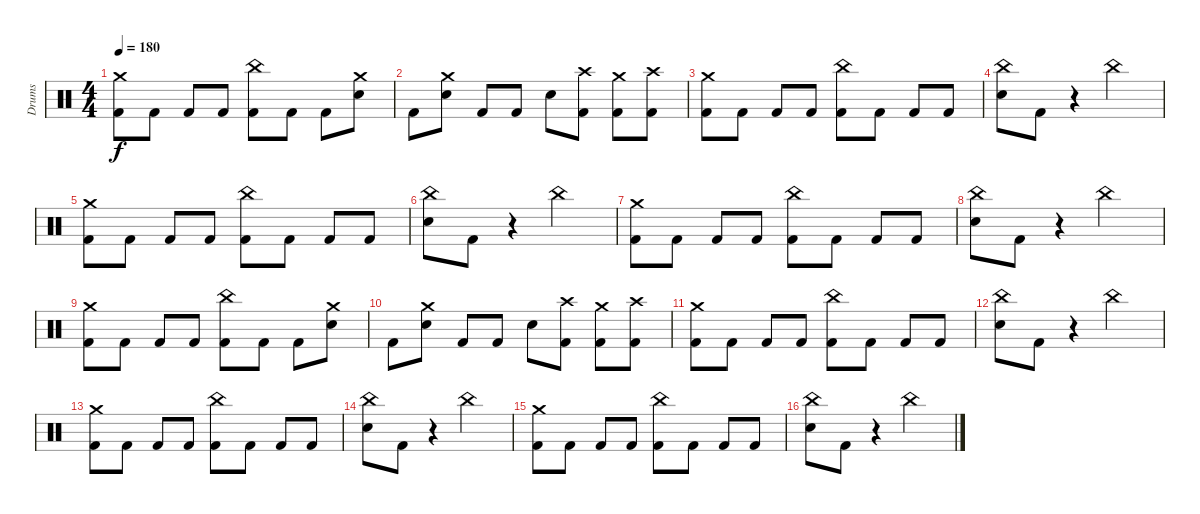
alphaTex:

\track ("Drums" "Drums") {instrument percussion}
\staff
\articulation defaults
\ts (4 4)
\tempo 180
\clef neutral
\ks c
("Crash medium (hit)" "Kick (hit) 2").8{dy f} "Kick (hit) 2".8 "Kick (hit) 2".8 "Kick (hit) 2".8 ("China (hit)" "Kick (hit) 2").8 "Kick (hit) 2".8 "Kick (hit) 2".8 ("Crash medium (hit)" "Electric Snare (hit)").8 |
"Kick (hit) 2".8 ("Crash medium (hit)" "Electric Snare (hit)").8 "Kick (hit) 2".8 "Kick (hit) 2".8 "Electric Snare (hit)".8 ("Crash high (hit)" "Kick (hit) 2").8 ("Crash medium (hit)" "Kick (hit) 2").8 ("Crash high (hit)" "Kick (hit) 2").8 |
("Crash medium (hit)" "Kick (hit) 2").8{volume 9} "Kick (hit) 2".8 "Kick (hit) 2".8 "Kick (hit) 2".8 ("China (hit)" "Kick (hit) 2").8 "Kick (hit) 2".8 "Kick (hit) 2".8 "Kick (hit) 2".8 |
("China (hit)" "Electric Snare (hit)").8 "Kick (hit) 2".8 r.4 "China (hit)".2 |
("Crash medium (hit)" "Kick (hit) 2").8 "Kick (hit) 2".8 "Kick (hit) 2".8 "Kick (hit) 2".8 ("China (hit)" "Kick (hit) 2").8 "Kick (hit) 2".8 "Kick (hit) 2".8 "Kick (hit) 2".8 |
("China (hit)" "Electric Snare (hit)").8 "Kick (hit) 2".8 r.4 "China (hit)".2 |
("Crash medium (hit)" "Kick (hit) 2").8{volume 6} "Kick (hit) 2".8 "Kick (hit) 2".8 "Kick (hit) 2".8 ("China (hit)" "Kick (hit) 2").8 "Kick (hit) 2".8 "Kick (hit) 2".8 "Kick (hit) 2".8 |
("China (hit)" "Electric Snare (hit)").8 "Kick (hit) 2".8 r.4 "China (hit)".2 |
("Crash medium (hit)" "Kick (hit) 2").8 "Kick (hit) 2".8 "Kick (hit) 2".8 "Kick (hit) 2".8 ("China (hit)" "Kick (hit) 2").8 "Kick (hit) 2".8 "Kick (hit) 2".8 ("Crash medium (hit)" "Electric Snare (hit)").8 |
"Kick (hit) 2".8 ("Crash medium (hit)" "Electric Snare (hit)").8 "Kick (hit) 2".8 "Kick (hit) 2".8 "Electric Snare (hit)".8 ("Crash high (hit)" "Kick (hit) 2").8 ("Crash medium (hit)" "Kick (hit) 2").8 ("Crash high (hit)" "Kick (hit) 2").8 |
("Crash medium (hit)" "Kick (hit) 2").8{volume 3} "Kick (hit) 2".8 "Kick (hit) 2".8 "Kick (hit) 2".8 ("China (hit)" "Kick (hit) 2").8 "Kick (hit) 2".8 "Kick (hit) 2".8 "Kick (hit) 2".8 |
("China (hit)" "Electric Snare (hit)").8 "Kick (hit) 2".8 r.4 "China (hit)".2 |
("Crash medium (hit)" "Kick (hit) 2").8 "Kick (hit) 2".8 "Kick (hit) 2".8 "Kick (hit) 2".8 ("China (hit)" "Kick (hit) 2").8 "Kick (hit) 2".8 "Kick (hit) 2".8 "Kick (hit) 2".8 |
("China (hit)" "Electric Snare (hit)").8 "Kick (hit) 2".8 r.4 "China (hit)".2 |
("Crash medium (hit)" "Kick (hit) 2").8{volume 0} "Kick (hit) 2".8 "Kick (hit) 2".8 "Kick (hit) 2".8 ("China (hit)" "Kick (hit) 2").8 "Kick (hit) 2".8 "Kick (hit) 2".8 "Kick (hit) 2".8 |
("China (hit)" "Electric Snare (hit)").8 "Kick (hit) 2".8 r.4 "China (hit)".2
